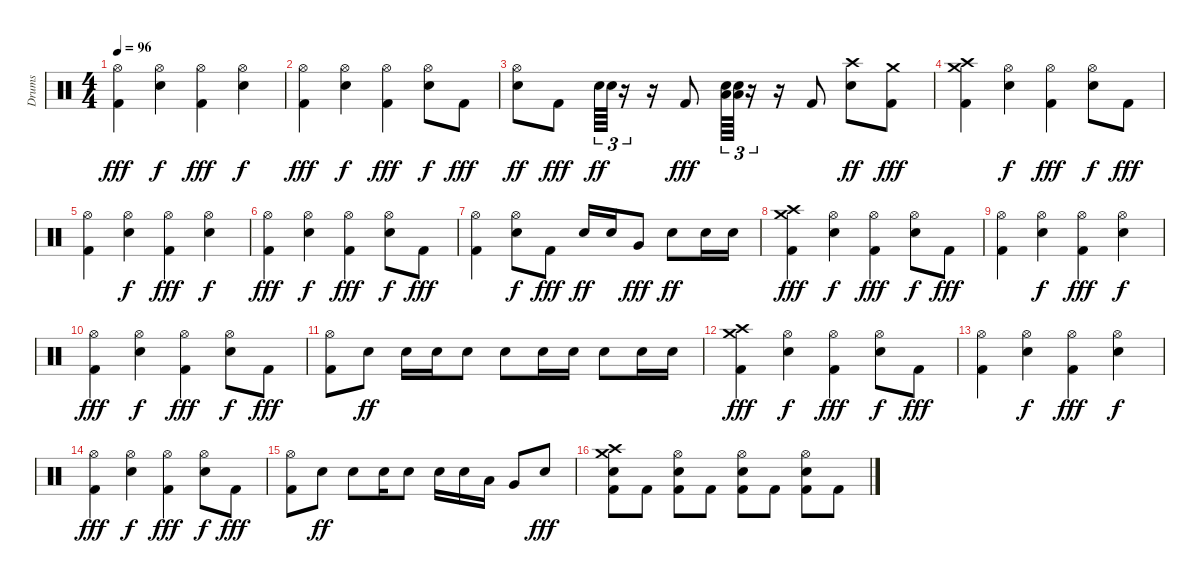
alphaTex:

\track ("Drums" "Drums") {instrument percussion}
\staff {score}
\articulation defaults
\ts (4 4)
\tempo 96
\clef neutral
\ks c
("Hi-Hat (open)" "Kick (hit) 2").4{dy fff} ("Hi-Hat (open)" "Electric Snare (hit)").4{dy f} ("Hi-Hat (open)" "Kick (hit) 2").4{dy fff} ("Hi-Hat (open)" "Electric Snare (hit)").4{dy f} |
("Hi-Hat (open)" "Kick (hit) 2").4{dy fff} ("Hi-Hat (open)" "Electric Snare (hit)").4{dy f} ("Hi-Hat (open)" "Kick (hit) 2").4{dy fff} ("Hi-Hat (open)" "Electric Snare (hit)").8{dy f} "Kick (hit) 2".8{dy fff} |
("Hi-Hat (open)" "Electric Snare (hit)").8{dy ff} "Kick (hit) 2".8{dy fff} "Electric Snare (hit)".64{tu (3 2) dy ff} "Electric Snare (hit)".64{tu (3 2)} r.16{tu (3 2)} r.16 "Kick (hit) 2".8{dy fff} ("Electric Snare (hit)" "Low Floor Tom (hit)").64{tu (3 2)} ("Electric Snare (hit)" "Low Floor Tom (hit)").64{tu (3 2)} r.16{tu (3 2)} r.16 "Kick (hit) 2".8 ("Crash high (hit)" "Electric Snare (hit)").8{dy ff} ("Crash medium (hit)" "Kick (hit) 2").8{dy fff} |
("Crash high (hit)" "Crash medium (hit)" "Kick (hit) 2").4 ("Hi-Hat (open)" "Electric Snare (hit)").4{dy f} ("Hi-Hat (open)" "Kick (hit) 2").4{dy fff} ("Hi-Hat (open)" "Electric Snare (hit)").8{dy f} "Kick (hit) 2".8{dy fff} |
("Hi-Hat (open)" "Kick (hit) 2").4 ("Hi-Hat (open)" "Electric Snare (hit)").4{dy f} ("Hi-Hat (open)" "Kick (hit) 2").4{dy fff} ("Hi-Hat (open)" "Electric Snare (hit)").4{dy f} |
("Hi-Hat (open)" "Kick (hit) 2").4{dy fff} ("Hi-Hat (open)" "Electric Snare (hit)").4{dy f} ("Hi-Hat (open)" "Kick (hit) 2").4{dy fff} ("Hi-Hat (open)" "Electric Snare (hit)").8{dy f} "Kick (hit) 2".8{dy fff} |
("Hi-Hat (open)" "Kick (hit) 2").4 ("Hi-Hat (open)" "Electric Snare (hit)").8{dy f} "Kick (hit) 2".8{dy fff} "Electric Snare (hit)".16{dy ff} "Electric Snare (hit)".16 "Very Low Tom (hit)".8{dy fff} "Electric Snare (hit)".8{dy ff} "Electric Snare (hit)".16 "Electric Snare (hit)".16 |
("Crash high (hit)" "Crash medium (hit)" "Kick (hit) 2").4{dy fff} ("Hi-Hat (open)" "Electric Snare (hit)").4{dy f} ("Hi-Hat (open)" "Kick (hit) 2").4{dy fff} ("Hi-Hat (open)" "Electric Snare (hit)").8{dy f} "Kick (hit) 2".8{dy fff} |
("Hi-Hat (open)" "Kick (hit) 2").4 ("Hi-Hat (open)" "Electric Snare (hit)").4{dy f} ("Hi-Hat (open)" "Kick (hit) 2").4{dy fff} ("Hi-Hat (open)" "Electric Snare (hit)").4{dy f} |
("Hi-Hat (open)" "Kick (hit) 2").4{dy fff} ("Hi-Hat (open)" "Electric Snare (hit)").4{dy f} ("Hi-Hat (open)" "Kick (hit) 2").4{dy fff} ("Hi-Hat (open)" "Electric Snare (hit)").8{dy f} "Kick (hit) 2".8{dy fff} |
("Hi-Hat (open)" "Kick (hit) 2").8 "Electric Snare (hit)".8{dy ff} "Electric Snare (hit)".16 "Electric Snare (hit)".16 "Electric Snare (hit)".8 "Electric Snare (hit)".8 "Electric Snare (hit)".16 "Electric Snare (hit)".16 "Electric Snare (hit)".8 "Electric Snare (hit)".16 "Electric Snare (hit)".16 |
("Crash high (hit)" "Crash medium (hit)" "Kick (hit) 2").4{dy fff} ("Hi-Hat (open)" "Electric Snare (hit)").4{dy f} ("Hi-Hat (open)" "Kick (hit) 2").4{dy fff} ("Hi-Hat (open)" "Electric Snare (hit)").8{dy f} "Kick (hit) 2".8{dy fff} |
("Hi-Hat (open)" "Kick (hit) 2").4 ("Hi-Hat (open)" "Electric Snare (hit)").4{dy f} ("Hi-Hat (open)" "Kick (hit) 2").4{dy fff} ("Hi-Hat (open)" "Electric Snare (hit)").4{dy f} |
("Hi-Hat (open)" "Kick (hit) 2").4{dy fff} ("Hi-Hat (open)" "Electric Snare (hit)").4{dy f} ("Hi-Hat (open)" "Kick (hit) 2").4{dy fff} ("Hi-Hat (open)" "Electric Snare (hit)").8{dy f} "Kick (hit) 2".8{dy fff} |
("Hi-Hat (open)" "Kick (hit) 2").8 "Electric Snare (hit)".8{dy ff} "Electric Snare (hit)".8 "Electric Snare (hit)".16 "Electric Snare (hit)".8 "Electric Snare (hit)".16 "Electric Snare (hit)".16 "Low Tom (hit)".16 "Very Low Tom (hit)".8 "Electric Snare (hit)".8{dy fff} |
("Crash high (hit)" "Crash medium (hit)" "Electric Snare (hit)" "Kick (hit) 2").8 "Kick (hit) 2".8 ("Hi-Hat (open)" "Electric Snare (hit)" "Kick (hit) 2").8 "Kick (hit) 2".8 ("Hi-Hat (open)" "Electric Snare (hit)" "Kick (hit) 2").8 "Kick (hit) 2".8 ("Hi-Hat (open)" "Electric Snare (hit)" "Kick (hit) 2").8 "Kick (hit) 2".8
